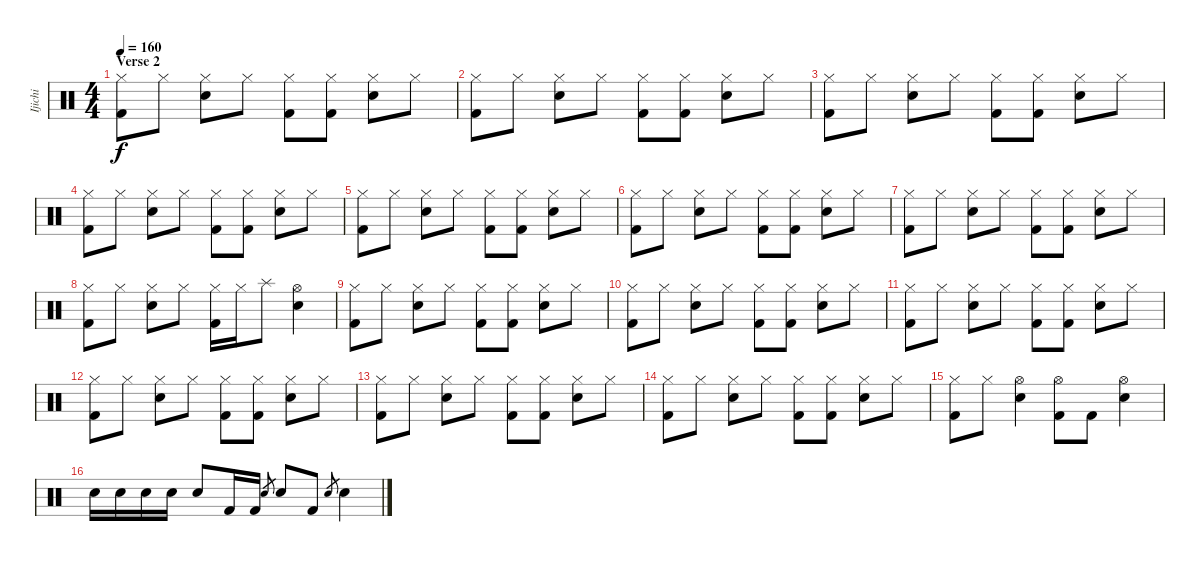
\track ("Ijichi" "Ijichi") {instrument percussion}
\staff {score}
\articulation defaults
\ts (4 4)
\section ("" "Verse 2")
\tempo 160
\clef neutral
\ks c
("Kick (hit) 2" "Hi-Hat (closed)").8{dy f} "Hi-Hat (closed)".8 ("Electric Snare (hit)" "Hi-Hat (closed)").8 "Hi-Hat (closed)".8 ("Kick (hit) 2" "Hi-Hat (closed)").8 ("Kick (hit) 2" "Hi-Hat (closed)").8 ("Electric Snare (hit)" "Hi-Hat (closed)").8 "Hi-Hat (closed)".8 |
("Kick (hit) 2" "Hi-Hat (closed)").8 "Hi-Hat (closed)".8 ("Electric Snare (hit)" "Hi-Hat (closed)").8 "Hi-Hat (closed)".8 ("Kick (hit) 2" "Hi-Hat (closed)").8 ("Kick (hit) 2" "Hi-Hat (closed)").8 ("Electric Snare (hit)" "Hi-Hat (closed)").8 "Hi-Hat (closed)".8 |
("Kick (hit) 2" "Hi-Hat (closed)").8 "Hi-Hat (closed)".8 ("Electric Snare (hit)" "Hi-Hat (closed)").8 "Hi-Hat (closed)".8 ("Kick (hit) 2" "Hi-Hat (closed)").8 ("Kick (hit) 2" "Hi-Hat (closed)").8 ("Electric Snare (hit)" "Hi-Hat (closed)").8 "Hi-Hat (closed)".8 |
("Kick (hit) 2" "Hi-Hat (closed)").8 "Hi-Hat (closed)".8 ("Electric Snare (hit)" "Hi-Hat (closed)").8 "Hi-Hat (closed)".8 ("Kick (hit) 2" "Hi-Hat (closed)").8 ("Kick (hit) 2" "Hi-Hat (closed)").8 ("Electric Snare (hit)" "Hi-Hat (closed)").8 "Hi-Hat (closed)".8 |
("Kick (hit) 2" "Hi-Hat (closed)").8 "Hi-Hat (closed)".8 ("Electric Snare (hit)" "Hi-Hat (closed)").8 "Hi-Hat (closed)".8 ("Kick (hit) 2" "Hi-Hat (closed)").8 ("Kick (hit) 2" "Hi-Hat (closed)").8 ("Electric Snare (hit)" "Hi-Hat (closed)").8 "Hi-Hat (closed)".8 |
("Kick (hit) 2" "Hi-Hat (closed)").8 "Hi-Hat (closed)".8 ("Electric Snare (hit)" "Hi-Hat (closed)").8 "Hi-Hat (closed)".8 ("Kick (hit) 2" "Hi-Hat (closed)").8 ("Kick (hit) 2" "Hi-Hat (closed)").8 ("Electric Snare (hit)" "Hi-Hat (closed)").8 "Hi-Hat (closed)".8 |
("Kick (hit) 2" "Hi-Hat (closed)").8 "Hi-Hat (closed)".8 ("Electric Snare (hit)" "Hi-Hat (closed)").8 "Hi-Hat (closed)".8 ("Kick (hit) 2" "Hi-Hat (closed)").8 ("Kick (hit) 2" "Hi-Hat (closed)").8 ("Electric Snare (hit)" "Hi-Hat (closed)").8 "Hi-Hat (closed)".8 |
("Kick (hit) 2" "Hi-Hat (closed)").8 "Hi-Hat (closed)".8 ("Electric Snare (hit)" "Hi-Hat (closed)").8 "Hi-Hat (closed)".8 ("Kick (hit) 2" "Hi-Hat (closed)").16 "Hi-Hat (closed)".16 "Splash (hit)".8 ("Electric Snare (hit)" "Hi-Hat (open)").4 |
("Kick (hit) 2" "Hi-Hat (closed)").8 "Hi-Hat (closed)".8 ("Electric Snare (hit)" "Hi-Hat (closed)").8 "Hi-Hat (closed)".8 ("Kick (hit) 2" "Hi-Hat (closed)").8 ("Kick (hit) 2" "Hi-Hat (closed)").8 ("Electric Snare (hit)" "Hi-Hat (closed)").8 "Hi-Hat (closed)".8 |
("Kick (hit) 2" "Hi-Hat (closed)").8 "Hi-Hat (closed)".8 ("Electric Snare (hit)" "Hi-Hat (closed)").8 "Hi-Hat (closed)".8 ("Kick (hit) 2" "Hi-Hat (closed)").8 ("Kick (hit) 2" "Hi-Hat (closed)").8 ("Electric Snare (hit)" "Hi-Hat (closed)").8 "Hi-Hat (closed)".8 |
("Kick (hit) 2" "Hi-Hat (closed)").8 "Hi-Hat (closed)".8 ("Electric Snare (hit)" "Hi-Hat (closed)").8 "Hi-Hat (closed)".8 ("Kick (hit) 2" "Hi-Hat (closed)").8 ("Kick (hit) 2" "Hi-Hat (closed)").8 ("Electric Snare (hit)" "Hi-Hat (closed)").8 "Hi-Hat (closed)".8 |
("Kick (hit) 2" "Hi-Hat (closed)").8 "Hi-Hat (closed)".8 ("Electric Snare (hit)" "Hi-Hat (closed)").8 "Hi-Hat (closed)".8 ("Kick (hit) 2" "Hi-Hat (closed)").8 ("Kick (hit) 2" "Hi-Hat (closed)").8 ("Electric Snare (hit)" "Hi-Hat (closed)").8 "Hi-Hat (closed)".8 |
("Kick (hit) 2" "Hi-Hat (closed)").8 "Hi-Hat (closed)".8 ("Electric Snare (hit)" "Hi-Hat (closed)").8 "Hi-Hat (closed)".8 ("Kick (hit) 2" "Hi-Hat (closed)").8 ("Kick (hit) 2" "Hi-Hat (closed)").8 ("Electric Snare (hit)" "Hi-Hat (closed)").8 "Hi-Hat (closed)".8 |
("Kick (hit) 2" "Hi-Hat (closed)").8 "Hi-Hat (closed)".8 ("Electric Snare (hit)" "Hi-Hat (closed)").8 "Hi-Hat (closed)".8 ("Kick (hit) 2" "Hi-Hat (closed)").8 ("Kick (hit) 2" "Hi-Hat (closed)").8 ("Electric Snare (hit)" "Hi-Hat (closed)").8 "Hi-Hat (closed)".8 |
("Kick (hit) 2" "Hi-Hat (closed)").8 "Hi-Hat (closed)".8 ("Electric Snare (hit)" "Hi-Hat (open)").4 ("Kick (hit) 2" "Hi-Hat (open)").8 "Kick (hit) 2".8 ("Electric Snare (hit)" "Hi-Hat (open)").4 |
"Electric Snare (hit)".16 "Electric Snare (hit)".16 "Electric Snare (hit)".16 "Electric Snare (hit)".16 "Electric Snare (hit)".8 "Kick (hit) 2".16 "Kick (hit) 2".16 "Electric Snare (hit)".8{gr} "Electric Snare (hit)".8 "Kick (hit) 2".8 "Electric Snare (hit)".8{gr} "Electric Snare (hit)".4
